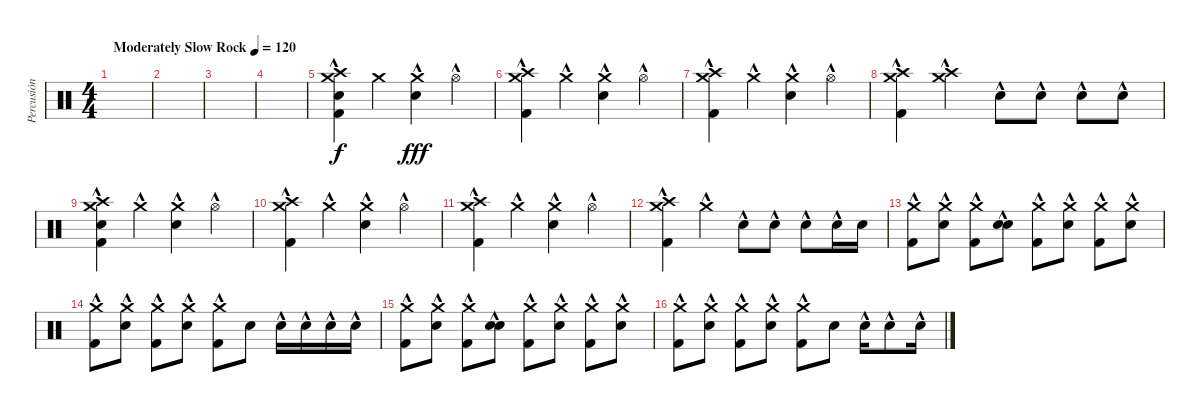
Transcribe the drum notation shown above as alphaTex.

\track ("Percusión" "Percusión") {instrument percussion}
\staff {score}
\articulation defaults
\ts (4 4)
\tempo (120 "Moderately Slow Rock")
\clef neutral
\ks c
|
|
|
|
("Crash high (hit)"{hac} "Crash medium (hit)"{hac} "Electric Snare (hit)" "Kick (hit) 2"{hac}).4 "Crash medium (hit)".4{dy f} ("Crash medium (hit)"{hac} "Electric Snare (hit)"{hac}).4{dy fff} "Hi-Hat (open)"{hac}.4 |
("Crash high (hit)"{hac} "Crash medium (hit)"{hac} "Kick (hit) 2"{hac}).4 "Crash medium (hit)"{hac}.4 ("Crash medium (hit)"{hac} "Electric Snare (hit)"{hac}).4 "Hi-Hat (open)"{hac}.4 |
("Crash high (hit)"{hac} "Crash medium (hit)"{hac} "Kick (hit) 2"{hac}).4 "Crash medium (hit)"{hac}.4 ("Crash medium (hit)"{hac} "Electric Snare (hit)"{hac}).4 "Hi-Hat (open)"{hac}.4 |
("Crash high (hit)"{hac} "Crash medium (hit)"{hac} "Kick (hit) 2"{hac}).4 ("Crash medium (hit)"{hac} "Crash high (hit)"{hac}).4 "Electric Snare (hit)"{hac}.8 "Electric Snare (hit)"{hac}.8 "Electric Snare (hit)"{hac}.8 "Electric Snare (hit)"{hac}.8 |
("Crash high (hit)"{hac} "Crash medium (hit)"{hac} "Electric Snare (hit)" "Kick (hit) 2"{hac}).4 "Crash medium (hit)"{hac}.4 ("Crash medium (hit)"{hac} "Electric Snare (hit)"{hac}).4 "Hi-Hat (open)"{hac}.4 |
("Crash high (hit)"{hac} "Crash medium (hit)"{hac} "Kick (hit) 2"{hac}).4 "Crash medium (hit)"{hac}.4 ("Crash medium (hit)"{hac} "Electric Snare (hit)"{hac}).4 "Hi-Hat (open)"{hac}.4 |
("Crash high (hit)"{hac} "Crash medium (hit)"{hac} "Kick (hit) 2"{hac}).4 "Crash medium (hit)"{hac}.4 ("Crash medium (hit)"{hac} "Electric Snare (hit)"{hac}).4 "Hi-Hat (open)"{hac}.4 |
("Crash high (hit)"{hac} "Crash medium (hit)"{hac} "Kick (hit) 2"{hac}).4 "Crash medium (hit)"{hac}.4 "Electric Snare (hit)"{hac}.8 "Electric Snare (hit)"{hac}.8 "Electric Snare (hit)"{hac}.8 "Electric Snare (hit)"{hac}.16 "Electric Snare (hit)".16 |
("Crash medium (hit)"{hac} "Kick (hit) 2").8 ("Crash medium (hit)"{hac} "Electric Snare (hit)"{hac}).8 ("Crash medium (hit)"{hac} "Kick (hit) 2"{hac}).8 ("Snare (hit)"{hac} "Electric Snare (hit)"{hac}).8 ("Crash medium (hit)"{hac} "Kick (hit) 2"{hac}).8 ("Crash medium (hit)"{hac} "Electric Snare (hit)"{hac}).8 ("Crash medium (hit)"{hac} "Kick (hit) 2"{hac}).8 ("Crash medium (hit)"{hac} "Electric Snare (hit)"{hac}).8 |
("Crash medium (hit)"{hac} "Kick (hit) 2"{hac}).8 ("Crash medium (hit)"{hac} "Electric Snare (hit)"{hac}).8 ("Crash medium (hit)"{hac} "Kick (hit) 2"{hac}).8 ("Crash medium (hit)"{hac} "Electric Snare (hit)"{hac}).8 ("Crash medium (hit)"{hac} "Kick (hit) 2"{hac}).8 "Electric Snare (hit)".8 "Electric Snare (hit)"{hac}.16 "Electric Snare (hit)"{hac}.16 "Electric Snare (hit)"{hac}.16 "Electric Snare (hit)"{hac}.16 |
("Crash medium (hit)"{hac} "Kick (hit) 2"{hac}).8 ("Crash medium (hit)"{hac} "Electric Snare (hit)"{hac}).8 ("Crash medium (hit)"{hac} "Kick (hit) 2"{hac}).8 ("Snare (hit)"{hac} "Electric Snare (hit)"{hac}).8 ("Crash medium (hit)"{hac} "Kick (hit) 2"{hac}).8 ("Crash medium (hit)"{hac} "Electric Snare (hit)"{hac}).8 ("Crash medium (hit)"{hac} "Kick (hit) 2"{hac}).8 ("Crash medium (hit)"{hac} "Electric Snare (hit)"{hac}).8 |
("Crash medium (hit)"{hac} "Kick (hit) 2"{hac}).8 ("Crash medium (hit)"{hac} "Electric Snare (hit)"{hac}).8 ("Crash medium (hit)"{hac} "Kick (hit) 2"{hac}).8 ("Crash medium (hit)"{hac} "Electric Snare (hit)"{hac}).8 ("Crash medium (hit)"{hac} "Kick (hit) 2"{hac}).8 "Electric Snare (hit)".8 "Electric Snare (hit)"{hac}.16 "Electric Snare (hit)"{hac}.8 "Electric Snare (hit)"{hac}.16
